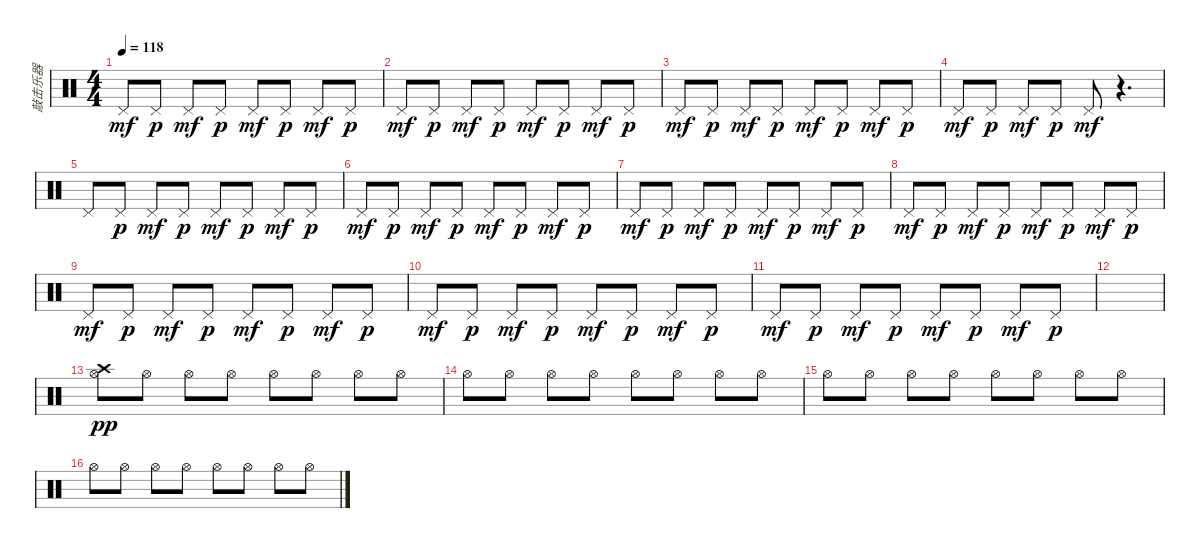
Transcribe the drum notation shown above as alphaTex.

\track ("敲击乐器" "敲击乐器") {instrument percussion}
\staff {score}
\articulation defaults
\ts (4 4)
\tempo 118
\clef neutral
\ks c "Pedal Hi-Hat (hit)".8{dy mf} "Pedal Hi-Hat (hit)".8{dy p} "Pedal Hi-Hat (hit)".8{dy mf} "Pedal Hi-Hat (hit)".8{dy p} "Pedal Hi-Hat (hit)".8{dy mf} "Pedal Hi-Hat (hit)".8{dy p} "Pedal Hi-Hat (hit)".8{dy mf} "Pedal Hi-Hat (hit)".8{dy p}
|
"Pedal Hi-Hat (hit)".8{dy mf} "Pedal Hi-Hat (hit)".8{dy p} "Pedal Hi-Hat (hit)".8{dy mf} "Pedal Hi-Hat (hit)".8{dy p} "Pedal Hi-Hat (hit)".8{dy mf} "Pedal Hi-Hat (hit)".8{dy p} "Pedal Hi-Hat (hit)".8{dy mf} "Pedal Hi-Hat (hit)".8{dy p} |
"Pedal Hi-Hat (hit)".8{dy mf} "Pedal Hi-Hat (hit)".8{dy p} "Pedal Hi-Hat (hit)".8{dy mf} "Pedal Hi-Hat (hit)".8{dy p} "Pedal Hi-Hat (hit)".8{dy mf} "Pedal Hi-Hat (hit)".8{dy p} "Pedal Hi-Hat (hit)".8{dy mf} "Pedal Hi-Hat (hit)".8{dy p} |
"Pedal Hi-Hat (hit)".8{dy mf} "Pedal Hi-Hat (hit)".8{dy p} "Pedal Hi-Hat (hit)".8{dy mf} "Pedal Hi-Hat (hit)".8{dy p} "Pedal Hi-Hat (hit)".8{dy mf} r.4{d} |
"Pedal Hi-Hat (hit)".8 "Pedal Hi-Hat (hit)".8{dy p} "Pedal Hi-Hat (hit)".8{dy mf} "Pedal Hi-Hat (hit)".8{dy p} "Pedal Hi-Hat (hit)".8{dy mf} "Pedal Hi-Hat (hit)".8{dy p} "Pedal Hi-Hat (hit)".8{dy mf} "Pedal Hi-Hat (hit)".8{dy p} |
"Pedal Hi-Hat (hit)".8{dy mf} "Pedal Hi-Hat (hit)".8{dy p} "Pedal Hi-Hat (hit)".8{dy mf} "Pedal Hi-Hat (hit)".8{dy p} "Pedal Hi-Hat (hit)".8{dy mf} "Pedal Hi-Hat (hit)".8{dy p} "Pedal Hi-Hat (hit)".8{dy mf} "Pedal Hi-Hat (hit)".8{dy p} |
"Pedal Hi-Hat (hit)".8{dy mf} "Pedal Hi-Hat (hit)".8{dy p} "Pedal Hi-Hat (hit)".8{dy mf} "Pedal Hi-Hat (hit)".8{dy p} "Pedal Hi-Hat (hit)".8{dy mf} "Pedal Hi-Hat (hit)".8{dy p} "Pedal Hi-Hat (hit)".8{dy mf} "Pedal Hi-Hat (hit)".8{dy p} |
"Pedal Hi-Hat (hit)".8{dy mf} "Pedal Hi-Hat (hit)".8{dy p} "Pedal Hi-Hat (hit)".8{dy mf} "Pedal Hi-Hat (hit)".8{dy p} "Pedal Hi-Hat (hit)".8{dy mf} "Pedal Hi-Hat (hit)".8{dy p} "Pedal Hi-Hat (hit)".8{dy mf} "Pedal Hi-Hat (hit)".8{dy p} |
"Pedal Hi-Hat (hit)".8{dy mf} "Pedal Hi-Hat (hit)".8{dy p} "Pedal Hi-Hat (hit)".8{dy mf} "Pedal Hi-Hat (hit)".8{dy p} "Pedal Hi-Hat (hit)".8{dy mf} "Pedal Hi-Hat (hit)".8{dy p} "Pedal Hi-Hat (hit)".8{dy mf} "Pedal Hi-Hat (hit)".8{dy p} |
"Pedal Hi-Hat (hit)".8{dy mf} "Pedal Hi-Hat (hit)".8{dy p} "Pedal Hi-Hat (hit)".8{dy mf} "Pedal Hi-Hat (hit)".8{dy p} "Pedal Hi-Hat (hit)".8{dy mf} "Pedal Hi-Hat (hit)".8{dy p} "Pedal Hi-Hat (hit)".8{dy mf} "Pedal Hi-Hat (hit)".8{dy p} |
"Pedal Hi-Hat (hit)".8{dy mf} "Pedal Hi-Hat (hit)".8{dy p} "Pedal Hi-Hat (hit)".8{dy mf} "Pedal Hi-Hat (hit)".8{dy p} "Pedal Hi-Hat (hit)".8{dy mf} "Pedal Hi-Hat (hit)".8{dy p} "Pedal Hi-Hat (hit)".8{dy mf} "Pedal Hi-Hat (hit)".8{dy p} |
|
("Crash high (hit)" "Hi-Hat (open)").8{dy pp} "Hi-Hat (open)".8 "Hi-Hat (open)".8 "Hi-Hat (open)".8 "Hi-Hat (open)".8 "Hi-Hat (open)".8 "Hi-Hat (open)".8 "Hi-Hat (open)".8 |
"Hi-Hat (open)".8 "Hi-Hat (open)".8 "Hi-Hat (open)".8 "Hi-Hat (open)".8 "Hi-Hat (open)".8 "Hi-Hat (open)".8 "Hi-Hat (open)".8 "Hi-Hat (open)".8 |
"Hi-Hat (open)".8 "Hi-Hat (open)".8 "Hi-Hat (open)".8 "Hi-Hat (open)".8 "Hi-Hat (open)".8 "Hi-Hat (open)".8 "Hi-Hat (open)".8 "Hi-Hat (open)".8 |
"Hi-Hat (open)".8 "Hi-Hat (open)".8 "Hi-Hat (open)".8 "Hi-Hat (open)".8 "Hi-Hat (open)".8 "Hi-Hat (open)".8 "Hi-Hat (open)".8 "Hi-Hat (open)".8
